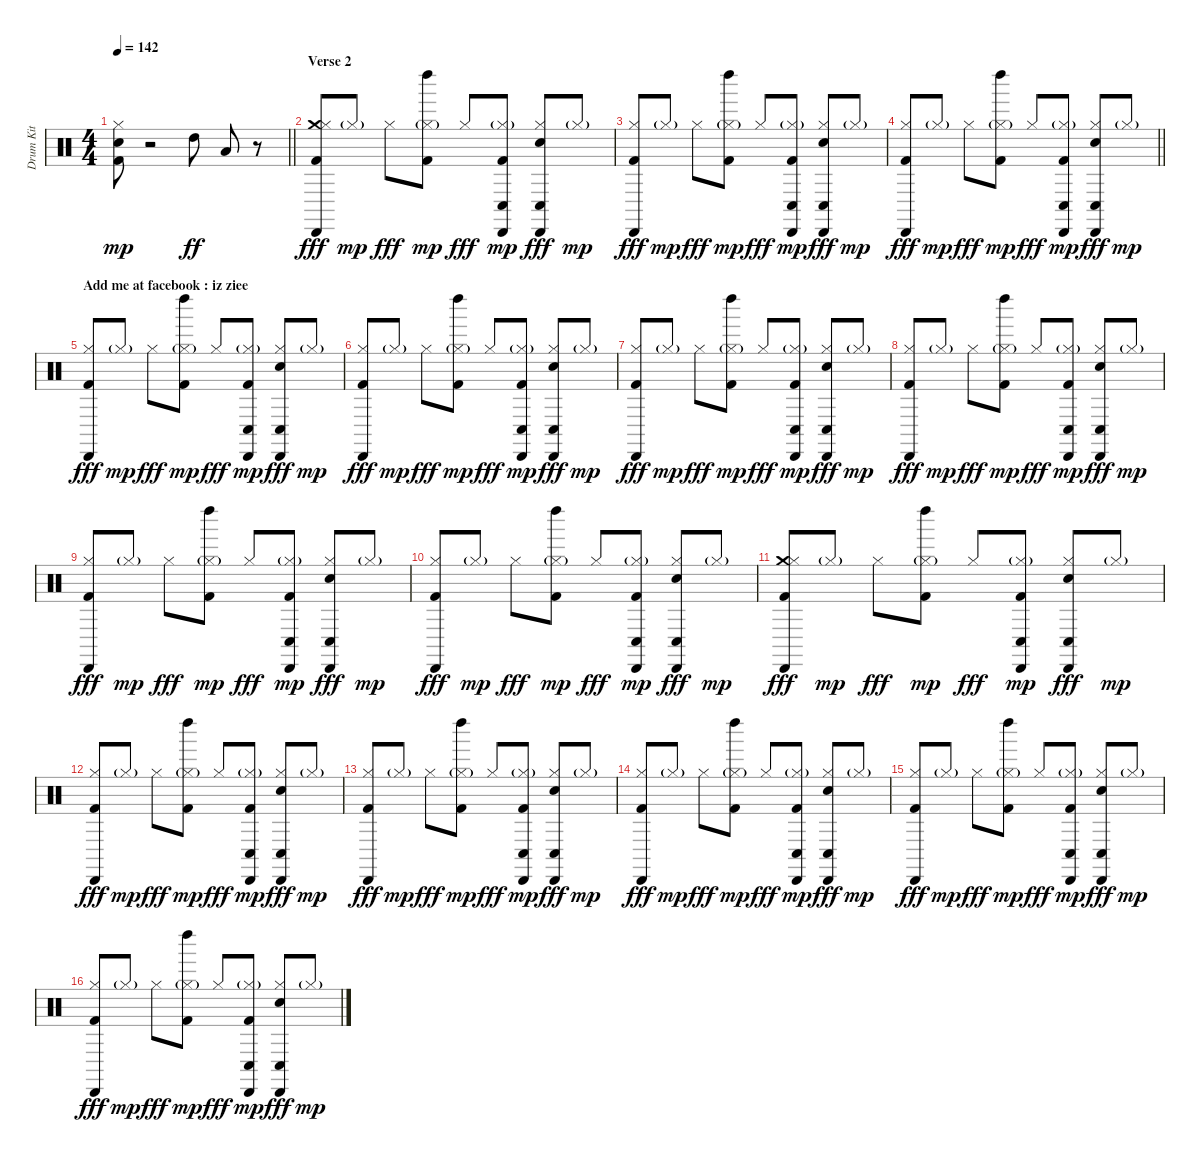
\track ("Drum Kit" "Drum Kit") {instrument percussion}
\staff {score}
\articulation defaults
\ts (4 4)
\tempo 142
\clef neutral
\barLineRight lightlight
\ks c
("Hi-Hat (closed)" "Snare (hit) 2" "Kick (hit) 2").8{dy mp} r.2 "High Tom (hit)".8{dy ff} "Low Tom (hit)".8 r.8 |
\section ("" "Verse 2")
("Crash medium (hit)" "Cabasa (hit)" "Kick (hit) 2" "Hi-Hat (closed)").8{dy fff} "Hi-Hat (closed)"{g}.8{dy mp} "Hi-Hat (closed)".8{dy fff} ("Kick (hit) 2" "Left Maraca (hit)" "Hi-Hat (closed)"{g}).8{dy mp} "Hi-Hat (closed)".8{dy fff} ("Cabasa (hit)" "Kick (hit) 2" "Conga low (hit)" "Hi-Hat (closed)"{g}).8{dy mp} ("Conga low (hit)" "Snare (hit) 2" "Cabasa (hit)" "Hi-Hat (closed)").8{dy fff} "Hi-Hat (closed)"{g}.8{dy mp} |
("Cabasa (hit)" "Kick (hit) 2" "Hi-Hat (closed)").8{dy fff} "Hi-Hat (closed)"{g}.8{dy mp} "Hi-Hat (closed)".8{dy fff} ("Kick (hit) 2" "Hi-Hat (closed)"{g} "Left Maraca (hit)").8{dy mp} "Hi-Hat (closed)".8{dy fff} ("Kick (hit) 2" "Conga low (hit)" "Hi-Hat (closed)"{g} "Cabasa (hit)").8{dy mp} ("Conga low (hit)" "Snare (hit) 2" "Cabasa (hit)" "Hi-Hat (closed)").8{dy fff} "Hi-Hat (closed)"{g}.8{dy mp} |
\barLineRight lightlight
("Cabasa (hit)" "Kick (hit) 2" "Hi-Hat (closed)").8{dy fff} "Hi-Hat (closed)"{g}.8{dy mp} "Hi-Hat (closed)".8{dy fff} ("Kick (hit) 2" "Hi-Hat (closed)"{g} "Left Maraca (hit)").8{dy mp} "Hi-Hat (closed)".8{dy fff} ("Kick (hit) 2" "Conga low (hit)" "Hi-Hat (closed)"{g} "Cabasa (hit)").8{dy mp} ("Conga low (hit)" "Snare (hit) 2" "Cabasa (hit)" "Hi-Hat (closed)").8{dy fff} "Hi-Hat (closed)"{g}.8{dy mp} |
\section ("" "Add me at facebook : iz ziee")
("Cabasa (hit)" "Kick (hit) 2" "Hi-Hat (closed)").8{dy fff} "Hi-Hat (closed)"{g}.8{dy mp} "Hi-Hat (closed)".8{dy fff} ("Kick (hit) 2" "Hi-Hat (closed)"{g} "Left Maraca (hit)").8{dy mp} "Hi-Hat (closed)".8{dy fff} ("Kick (hit) 2" "Conga low (hit)" "Hi-Hat (closed)"{g} "Cabasa (hit)").8{dy mp} ("Conga low (hit)" "Snare (hit) 2" "Cabasa (hit)" "Hi-Hat (closed)").8{dy fff} "Hi-Hat (closed)"{g}.8{dy mp} |
("Cabasa (hit)" "Kick (hit) 2" "Hi-Hat (closed)").8{dy fff} "Hi-Hat (closed)"{g}.8{dy mp} "Hi-Hat (closed)".8{dy fff} ("Kick (hit) 2" "Hi-Hat (closed)"{g} "Left Maraca (hit)").8{dy mp} "Hi-Hat (closed)".8{dy fff} ("Kick (hit) 2" "Conga low (hit)" "Hi-Hat (closed)"{g} "Cabasa (hit)").8{dy mp} ("Conga low (hit)" "Snare (hit) 2" "Cabasa (hit)" "Hi-Hat (closed)").8{dy fff} "Hi-Hat (closed)"{g}.8{dy mp} |
("Cabasa (hit)" "Kick (hit) 2" "Hi-Hat (closed)").8{dy fff} "Hi-Hat (closed)"{g}.8{dy mp} "Hi-Hat (closed)".8{dy fff} ("Kick (hit) 2" "Hi-Hat (closed)"{g} "Left Maraca (hit)").8{dy mp} "Hi-Hat (closed)".8{dy fff} ("Kick (hit) 2" "Conga low (hit)" "Hi-Hat (closed)"{g} "Cabasa (hit)").8{dy mp} ("Conga low (hit)" "Snare (hit) 2" "Cabasa (hit)" "Hi-Hat (closed)").8{dy fff} "Hi-Hat (closed)"{g}.8{dy mp} |
("Cabasa (hit)" "Kick (hit) 2" "Hi-Hat (closed)").8{dy fff} "Hi-Hat (closed)"{g}.8{dy mp} "Hi-Hat (closed)".8{dy fff} ("Kick (hit) 2" "Hi-Hat (closed)"{g} "Left Maraca (hit)").8{dy mp} "Hi-Hat (closed)".8{dy fff} ("Kick (hit) 2" "Conga low (hit)" "Hi-Hat (closed)"{g} "Cabasa (hit)").8{dy mp} ("Conga low (hit)" "Snare (hit) 2" "Cabasa (hit)" "Hi-Hat (closed)").8{dy fff} "Hi-Hat (closed)"{g}.8{dy mp} |
("Cabasa (hit)" "Kick (hit) 2" "Hi-Hat (closed)").8{dy fff} "Hi-Hat (closed)"{g}.8{dy mp} "Hi-Hat (closed)".8{dy fff} ("Kick (hit) 2" "Hi-Hat (closed)"{g} "Left Maraca (hit)").8{dy mp} "Hi-Hat (closed)".8{dy fff} ("Kick (hit) 2" "Conga low (hit)" "Hi-Hat (closed)"{g} "Cabasa (hit)").8{dy mp} ("Conga low (hit)" "Snare (hit) 2" "Cabasa (hit)" "Hi-Hat (closed)").8{dy fff} "Hi-Hat (closed)"{g}.8{dy mp} |
("Cabasa (hit)" "Kick (hit) 2" "Hi-Hat (closed)").8{dy fff} "Hi-Hat (closed)"{g}.8{dy mp} "Hi-Hat (closed)".8{dy fff} ("Kick (hit) 2" "Hi-Hat (closed)"{g} "Left Maraca (hit)").8{dy mp} "Hi-Hat (closed)".8{dy fff} ("Kick (hit) 2" "Conga low (hit)" "Hi-Hat (closed)"{g} "Cabasa (hit)").8{dy mp} ("Conga low (hit)" "Snare (hit) 2" "Cabasa (hit)" "Hi-Hat (closed)").8{dy fff} "Hi-Hat (closed)"{g}.8{dy mp} |
("Crash medium (hit)" "Cabasa (hit)" "Kick (hit) 2" "Hi-Hat (closed)").8{dy fff} "Hi-Hat (closed)"{g}.8{dy mp} "Hi-Hat (closed)".8{dy fff} ("Kick (hit) 2" "Left Maraca (hit)" "Hi-Hat (closed)"{g}).8{dy mp} "Hi-Hat (closed)".8{dy fff} ("Cabasa (hit)" "Kick (hit) 2" "Conga low (hit)" "Hi-Hat (closed)"{g}).8{dy mp} ("Conga low (hit)" "Snare (hit) 2" "Cabasa (hit)" "Hi-Hat (closed)").8{dy fff} "Hi-Hat (closed)"{g}.8{dy mp} |
("Cabasa (hit)" "Kick (hit) 2" "Hi-Hat (closed)").8{dy fff} "Hi-Hat (closed)"{g}.8{dy mp} "Hi-Hat (closed)".8{dy fff} ("Kick (hit) 2" "Hi-Hat (closed)"{g} "Left Maraca (hit)").8{dy mp} "Hi-Hat (closed)".8{dy fff} ("Kick (hit) 2" "Conga low (hit)" "Hi-Hat (closed)"{g} "Cabasa (hit)").8{dy mp} ("Conga low (hit)" "Snare (hit) 2" "Cabasa (hit)" "Hi-Hat (closed)").8{dy fff} "Hi-Hat (closed)"{g}.8{dy mp} |
("Cabasa (hit)" "Kick (hit) 2" "Hi-Hat (closed)").8{dy fff} "Hi-Hat (closed)"{g}.8{dy mp} "Hi-Hat (closed)".8{dy fff} ("Kick (hit) 2" "Hi-Hat (closed)"{g} "Left Maraca (hit)").8{dy mp} "Hi-Hat (closed)".8{dy fff} ("Kick (hit) 2" "Conga low (hit)" "Hi-Hat (closed)"{g} "Cabasa (hit)").8{dy mp} ("Conga low (hit)" "Snare (hit) 2" "Cabasa (hit)" "Hi-Hat (closed)").8{dy fff} "Hi-Hat (closed)"{g}.8{dy mp} |
("Cabasa (hit)" "Kick (hit) 2" "Hi-Hat (closed)").8{dy fff} "Hi-Hat (closed)"{g}.8{dy mp} "Hi-Hat (closed)".8{dy fff} ("Kick (hit) 2" "Hi-Hat (closed)"{g} "Left Maraca (hit)").8{dy mp} "Hi-Hat (closed)".8{dy fff} ("Kick (hit) 2" "Conga low (hit)" "Hi-Hat (closed)"{g} "Cabasa (hit)").8{dy mp} ("Conga low (hit)" "Snare (hit) 2" "Cabasa (hit)" "Hi-Hat (closed)").8{dy fff} "Hi-Hat (closed)"{g}.8{dy mp} |
("Cabasa (hit)" "Kick (hit) 2" "Hi-Hat (closed)").8{dy fff} "Hi-Hat (closed)"{g}.8{dy mp} "Hi-Hat (closed)".8{dy fff} ("Kick (hit) 2" "Hi-Hat (closed)"{g} "Left Maraca (hit)").8{dy mp} "Hi-Hat (closed)".8{dy fff} ("Kick (hit) 2" "Conga low (hit)" "Hi-Hat (closed)"{g} "Cabasa (hit)").8{dy mp} ("Conga low (hit)" "Snare (hit) 2" "Cabasa (hit)" "Hi-Hat (closed)").8{dy fff} "Hi-Hat (closed)"{g}.8{dy mp} |
("Cabasa (hit)" "Kick (hit) 2" "Hi-Hat (closed)").8{dy fff} "Hi-Hat (closed)"{g}.8{dy mp} "Hi-Hat (closed)".8{dy fff} ("Kick (hit) 2" "Hi-Hat (closed)"{g} "Left Maraca (hit)").8{dy mp} "Hi-Hat (closed)".8{dy fff} ("Kick (hit) 2" "Conga low (hit)" "Hi-Hat (closed)"{g} "Cabasa (hit)").8{dy mp} ("Conga low (hit)" "Snare (hit) 2" "Cabasa (hit)" "Hi-Hat (closed)").8{dy fff} "Hi-Hat (closed)"{g}.8{dy mp}
